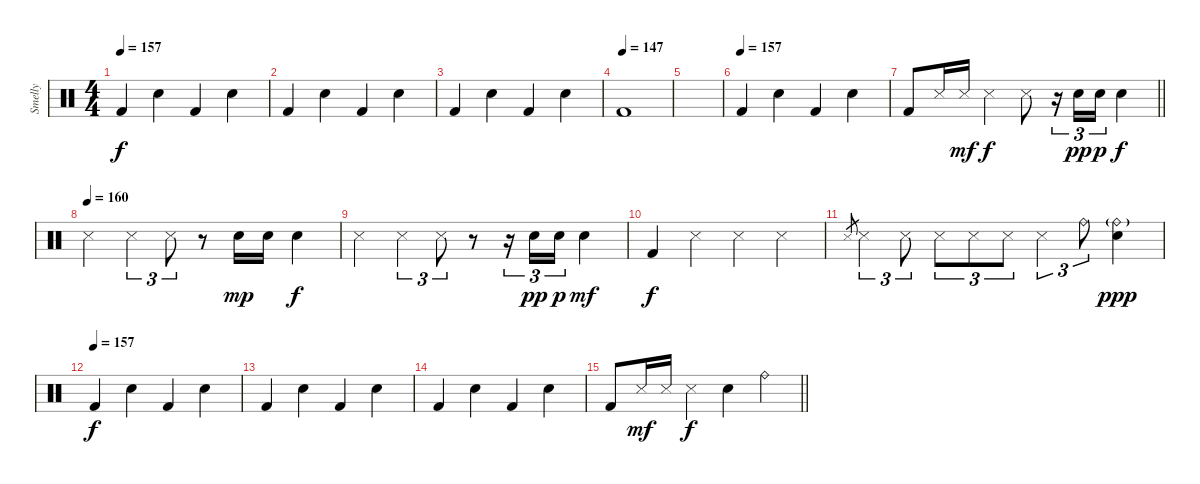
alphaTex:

\track ("Smelly" "Smelly") {instrument percussion}
\staff {score}
\articulation defaults
\ts (4 4)
\tempo 157
\clef neutral
\ks c "Kick (hit) 2".4{dy f} "Electric Snare (hit)".4 "Kick (hit) 2".4 "Electric Snare (hit)".4
|
"Kick (hit) 2".4 "Electric Snare (hit)".4 "Kick (hit) 2".4 "Electric Snare (hit)".4 |
"Kick (hit) 2".4 "Electric Snare (hit)".4 "Kick (hit) 2".4 "Electric Snare (hit)".4 |
\tempo (147)
"Kick (hit) 2".1 |
|
\tempo (157)
"Kick (hit) 2".4 "Electric Snare (hit)".4 "Kick (hit) 2".4 "Electric Snare (hit)".4 |
\barLineRight lightlight "Kick (hit) 2".8 "Snare (side stick) 3".16 "Snare (side stick) 3".16{dy mf} "Snare (side stick) 3".4{dy f} "Snare (side stick) 3".8
r.16{tu (3 2)} "Electric Snare (hit)".16{tu (3 2) dy pp} "Electric Snare (hit)".16{tu (3 2) dy p} "Electric Snare (hit)".4{dy f} |
\section ("" "")
\tempo (160)
"Snare (side stick) 3".4 "Snare (side stick) 3".4{tu (3 2)} "Snare (side stick) 3".8{tu (3 2)} r.8 "Electric Snare (hit)".16{dy mp} "Electric Snare (hit)".16 "Electric Snare (hit)".4{dy f} |
"Snare (side stick) 3".4 "Snare (side stick) 3".4{tu (3 2)} "Snare (side stick) 3".8{tu (3 2)} r.8 r.16{tu (3 2)} "Electric Snare (hit)".16{tu (3 2) dy pp} "Electric Snare (hit)".16{tu (3 2) dy p} "Electric Snare (hit)".4{dy mf} |
"Kick (hit) 2".4{dy f} "Snare (side stick) 3".4 "Snare (side stick) 3".4 "Snare (side stick) 3".4 |
"Snare (side stick) 3".8{gr} "Snare (side stick) 3".4{tu (3 2)} "Snare (side stick) 3".8{tu (3 2)} "Snare (side stick) 3".8{tu (3 2)} "Snare (side stick) 3".8{tu (3 2)} "Snare (side stick) 3".8{tu (3 2)} "Snare (side stick) 3".4{tu (3 2)} "Ride (bell)".8{tu (3 2)} ("Ride (bell)"{g} "Electric Snare (hit)").4{dy ppp} |
\tempo (157)
"Kick (hit) 2".4{dy f} "Electric Snare (hit)".4 "Kick (hit) 2".4 "Electric Snare (hit)".4 |
"Kick (hit) 2".4 "Electric Snare (hit)".4 "Kick (hit) 2".4 "Electric Snare (hit)".4 |
"Kick (hit) 2".4 "Electric Snare (hit)".4 "Kick (hit) 2".4 "Electric Snare (hit)".4 |
\barLineRight lightlight "Kick (hit) 2".8 "Snare (side stick) 3".16{dy mf} "Snare (side stick) 3".16 "Snare (side stick) 3".4{dy f} "Electric Snare (hit)".4 "Ride (bell)".4
